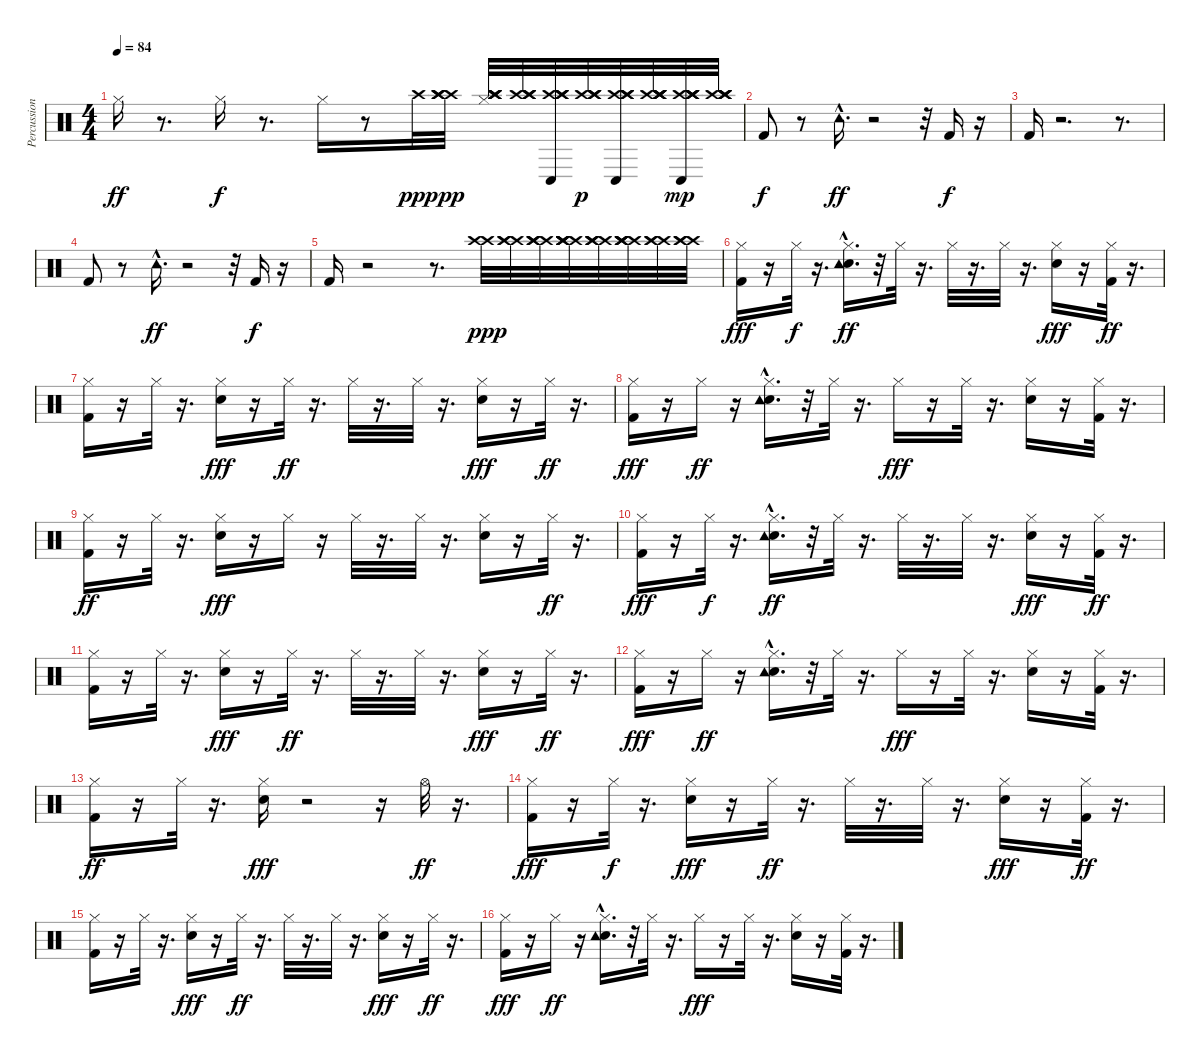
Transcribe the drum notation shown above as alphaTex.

\track ("Percussions" "Percussion") {instrument percussion}
\staff {score}
\articulation defaults
\ts (4 4)
\tempo 84
\clef neutral
\ks c "Hi-Hat (closed)".16{dy ff}
r.8{d} "Hi-Hat (closed)".16{dy f} r.8{d} "Hi-Hat (closed)".16 r.8 "Crash high (hit)".32{dy ppp} ("Crash high (hit)" "Crash high (hit)" "Crash high (hit)" "Crash high (hit)").32{dy pp} ("Crash high (hit)" "Hi-Hat (closed)" "Crash high (hit)" "Crash high (hit)" "Crash high (hit)").32 ("Crash high (hit)" "Crash high (hit)" "Crash high (hit)" "Crash high (hit)").32 ("Crash high (hit)" "Conga low (hit)" "Crash high (hit)" "Crash high (hit)" "Crash high (hit)").32 ("Crash high (hit)" "Crash high (hit)" "Crash high (hit)" "Crash high (hit)").32{dy p} ("Crash high (hit)" "Crash high (hit)" "Conga low (hit)" "Crash high (hit)" "Crash high (hit)").32 ("Crash high (hit)" "Crash high (hit)" "Crash high (hit)" "Crash high (hit)" "Crash high (hit)" "Crash high (hit)").32 ("Crash high (hit)" "Crash high (hit)" "Crash high (hit)" "Crash high (hit)" "Conga low (hit)" "Crash high (hit)").32{dy mp} ("Crash high (hit)" "Crash high (hit)" "Crash high (hit)" "Crash high (hit)" "Crash high (hit)").32 |
"Kick (hit) 2".8{dy f} r.8 "Tambourine (hit)"{hac}.16{d dy ff volume 12 balance 8} r.2 r.32 "Kick (hit) 2".16{dy f} r.16 |
"Kick (hit) 2".16 r.2{d} r.8{d} |
"Kick (hit) 2".8 r.8 "Tambourine (hit)"{hac}.16{d dy ff} r.2 r.32 "Kick (hit) 2".16{dy f} r.16 |
"Kick (hit) 2".16 r.2 r.8{d} ("Crash high (hit)" "Crash high (hit)").32{dy ppp} ("Crash high (hit)" "Crash high (hit)" "Crash high (hit)").32 ("Crash high (hit)" "Crash high (hit)" "Crash high (hit)" "Crash high (hit)").32 ("Crash high (hit)" "Crash high (hit)" "Crash high (hit)" "Crash high (hit)" "Crash high (hit)").32 ("Crash high (hit)" "Crash high (hit)" "Crash high (hit)" "Crash high (hit)").32 ("Crash high (hit)" "Crash high (hit)" "Crash high (hit)" "Crash high (hit)" "Crash high (hit)").32 ("Crash high (hit)" "Crash high (hit)" "Crash high (hit)").32 ("Crash high (hit)" "Crash high (hit)" "Crash high (hit)").32 |
("Kick (hit) 2" "Hi-Hat (closed)").16{dy fff} r.16 "Hi-Hat (closed)".32{dy f} r.16{d} ("Snare (hit) 2" "Hi-Hat (closed)" "Tambourine (hit)"{hac}).16{d dy ff} r.32 "Hi-Hat (closed)".32 r.16{d} "Hi-Hat (closed)".32 r.16{d} "Hi-Hat (closed)".32 r.16{d} ("Snare (hit) 2" "Hi-Hat (closed)").16{dy fff} r.16 ("Hi-Hat (closed)" "Kick (hit) 2").32{dy ff} r.16{d} |
("Hi-Hat (closed)" "Kick (hit) 2").16 r.16 "Hi-Hat (closed)".32 r.16{d} ("Snare (hit) 2" "Hi-Hat (closed)").16{dy fff} r.16 "Hi-Hat (closed)".32{dy ff} r.16{d} "Hi-Hat (closed)".32 r.16{d} "Hi-Hat (closed)".32 r.16{d} ("Snare (hit) 2" "Hi-Hat (closed)").16{dy fff} r.16 "Hi-Hat (closed)".32{dy ff} r.16{d} |
("Hi-Hat (closed)" "Kick (hit) 2").16{dy fff} r.16 "Hi-Hat (closed)".16{dy ff} r.16 ("Snare (hit) 2" "Hi-Hat (closed)" "Tambourine (hit)"{hac}).16{d} r.32 "Hi-Hat (closed)".32 r.16{d} "Hi-Hat (closed)".16{dy fff} r.16 "Hi-Hat (closed)".32 r.16{d} ("Snare (hit) 2" "Hi-Hat (closed)").16 r.16 ("Kick (hit) 2" "Hi-Hat (closed)").32 r.16{d} |
("Hi-Hat (closed)" "Kick (hit) 2").16{dy ff} r.16 "Hi-Hat (closed)".32 r.16{d} ("Snare (hit) 2" "Hi-Hat (closed)").16{dy fff} r.16 "Hi-Hat (closed)".16 r.16 "Hi-Hat (closed)".32 r.16{d} "Hi-Hat (closed)".32 r.16{d} ("Snare (hit) 2" "Hi-Hat (closed)").16 r.16 "Hi-Hat (closed)".32{dy ff} r.16{d} |
("Kick (hit) 2" "Hi-Hat (closed)").16{dy fff} r.16 "Hi-Hat (closed)".32{dy f} r.16{d} ("Snare (hit) 2" "Hi-Hat (closed)" "Tambourine (hit)"{hac}).16{d dy ff} r.32 "Hi-Hat (closed)".32 r.16{d} "Hi-Hat (closed)".32 r.16{d} "Hi-Hat (closed)".32 r.16{d} ("Snare (hit) 2" "Hi-Hat (closed)").16{dy fff} r.16 ("Hi-Hat (closed)" "Kick (hit) 2").32{dy ff} r.16{d} |
("Hi-Hat (closed)" "Kick (hit) 2").16 r.16 "Hi-Hat (closed)".32 r.16{d} ("Snare (hit) 2" "Hi-Hat (closed)").16{dy fff} r.16 "Hi-Hat (closed)".32{dy ff} r.16{d} "Hi-Hat (closed)".32 r.16{d} "Hi-Hat (closed)".32 r.16{d} ("Snare (hit) 2" "Hi-Hat (closed)").16{dy fff} r.16 "Hi-Hat (closed)".32{dy ff} r.16{d} |
("Hi-Hat (closed)" "Kick (hit) 2").16{dy fff} r.16 "Hi-Hat (closed)".16{dy ff} r.16 ("Snare (hit) 2" "Hi-Hat (closed)" "Tambourine (hit)"{hac}).16{d} r.32 "Hi-Hat (closed)".32 r.16{d} "Hi-Hat (closed)".16{dy fff} r.16 "Hi-Hat (closed)".32 r.16{d} ("Snare (hit) 2" "Hi-Hat (closed)").16 r.16 ("Kick (hit) 2" "Hi-Hat (closed)").32 r.16{d} |
("Hi-Hat (closed)" "Kick (hit) 2").16{dy ff} r.16 "Hi-Hat (closed)".32 r.16{d} ("Snare (hit) 2" "Hi-Hat (closed)").16{dy fff} r.2 r.16 "Hi-Hat (open)".32{dy ff} r.16{d} |
("Kick (hit) 2" "Hi-Hat (closed)").16{dy fff} r.16 "Hi-Hat (closed)".32{dy f} r.16{d} ("Snare (hit) 2" "Hi-Hat (closed)").16{dy fff} r.16 "Hi-Hat (closed)".32{dy ff} r.16{d} "Hi-Hat (closed)".32 r.16{d} "Hi-Hat (closed)".32 r.16{d} ("Snare (hit) 2" "Hi-Hat (closed)").16{dy fff} r.16 ("Hi-Hat (closed)" "Kick (hit) 2").32{dy ff} r.16{d} |
("Hi-Hat (closed)" "Kick (hit) 2").16 r.16 "Hi-Hat (closed)".32 r.16{d} ("Snare (hit) 2" "Hi-Hat (closed)").16{dy fff} r.16 "Hi-Hat (closed)".32{dy ff} r.16{d} "Hi-Hat (closed)".32 r.16{d} "Hi-Hat (closed)".32 r.16{d} ("Snare (hit) 2" "Hi-Hat (closed)").16{dy fff} r.16 "Hi-Hat (closed)".32{dy ff} r.16{d} |
("Hi-Hat (closed)" "Kick (hit) 2").16{dy fff} r.16 "Hi-Hat (closed)".16{dy ff} r.16 ("Snare (hit) 2" "Hi-Hat (closed)" "Tambourine (hit)"{hac}).16{d} r.32 "Hi-Hat (closed)".32 r.16{d} "Hi-Hat (closed)".16{dy fff} r.16 "Hi-Hat (closed)".32 r.16{d} ("Snare (hit) 2" "Hi-Hat (closed)").16 r.16 ("Kick (hit) 2" "Hi-Hat (closed)").32 r.16{d}
